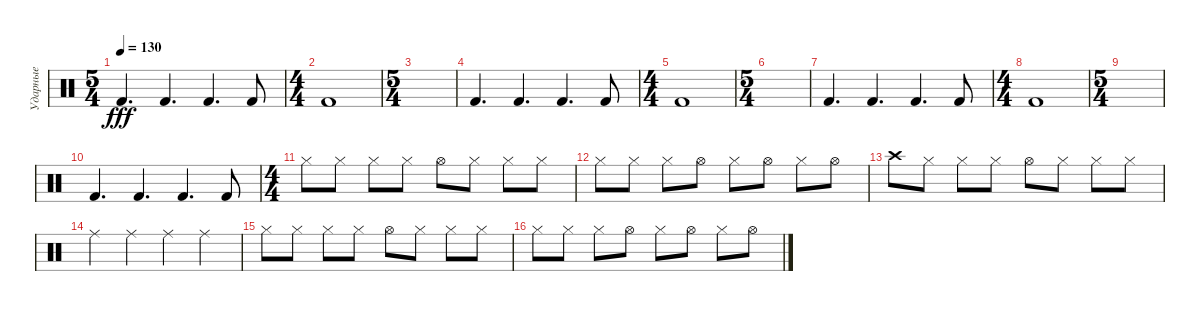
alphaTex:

\track ("Ударные" "Ударные") {instrument percussion}
\staff {score}
\articulation defaults
\ts (5 4)
\tempo 130
\clef neutral
\ks c "Kick (hit) 2".4{d dy fff} "Kick (hit) 2".4{d} "Kick (hit) 2".4{d} "Kick (hit) 2".8
|
\ts (4 4)
"Kick (hit) 2".1 |
\ts (5 4)
|
"Kick (hit) 2".4{d} "Kick (hit) 2".4{d} "Kick (hit) 2".4{d} "Kick (hit) 2".8 |
\ts (4 4)
"Kick (hit) 2".1 |
\ts (5 4)
|
"Kick (hit) 2".4{d} "Kick (hit) 2".4{d} "Kick (hit) 2".4{d} "Kick (hit) 2".8 |
\ts (4 4)
"Kick (hit) 2".1 |
\ts (5 4)
|
"Kick (hit) 2".4{d} "Kick (hit) 2".4{d} "Kick (hit) 2".4{d} "Kick (hit) 2".8 |
\ts (4 4)
"Hi-Hat (closed)".8 "Hi-Hat (closed)".8 "Hi-Hat (closed)".8 "Hi-Hat (closed)".8 "Hi-Hat (open)".8 "Hi-Hat (closed)".8 "Hi-Hat (closed)".8 "Hi-Hat (closed)".8 |
"Hi-Hat (closed)".8 "Hi-Hat (closed)".8 "Hi-Hat (closed)".8 "Hi-Hat (open)".8 "Hi-Hat (closed)".8 "Hi-Hat (open)".8 "Hi-Hat (closed)".8 "Hi-Hat (open)".8 |
"Crash high (hit)".8 "Hi-Hat (closed)".8 "Hi-Hat (closed)".8 "Hi-Hat (closed)".8 "Hi-Hat (open)".8 "Hi-Hat (closed)".8 "Hi-Hat (closed)".8 "Hi-Hat (closed)".8 |
"Ride (middle)".4 "Ride (middle)".4 "Ride (middle)".4 "Ride (middle)".4 |
"Hi-Hat (closed)".8 "Hi-Hat (closed)".8 "Hi-Hat (closed)".8 "Hi-Hat (closed)".8 "Hi-Hat (open)".8 "Hi-Hat (closed)".8 "Hi-Hat (closed)".8 "Hi-Hat (closed)".8 |
"Hi-Hat (closed)".8 "Hi-Hat (closed)".8 "Hi-Hat (closed)".8 "Hi-Hat (open)".8 "Hi-Hat (closed)".8 "Hi-Hat (open)".8 "Hi-Hat (closed)".8 "Hi-Hat (open)".8
